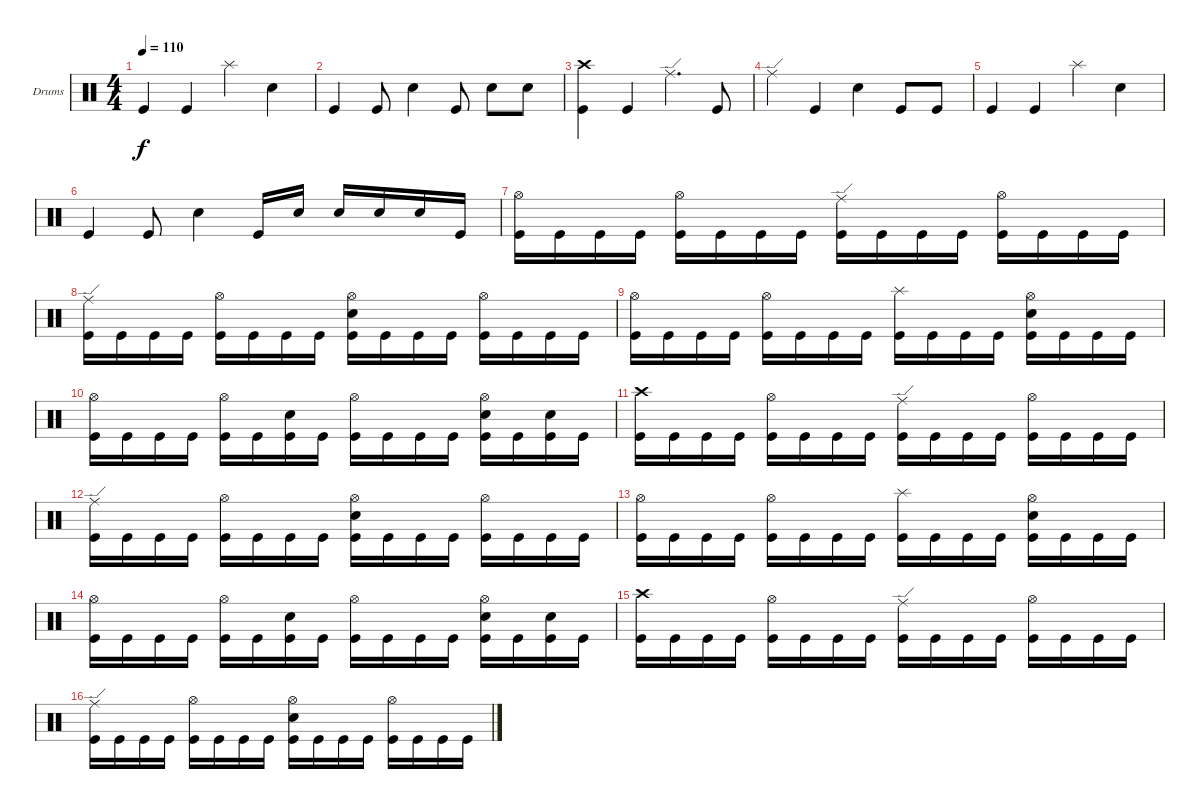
\bracketExtendMode groupsimilarinstruments
\firstSystemTrackNameOrientation horizontal
\otherSystemsTrackNameOrientation horizontal
\track ("Drumkit" "Drums") {instrument percussion}
\staff {score}
\articulation defaults
\ts (4 4)
\tempo 110
\clef neutral
\ks c "Kick (hit)".4{dy f} "Kick (hit)".4 "Splash (hit)".4 "Snare (hit) 2".4
|
"Kick (hit)".4 "Kick (hit)".8 "Snare (hit) 2".4 "Kick (hit)".8 "Snare (hit) 2".8 "Snare (hit) 2".8 |
("Crash high (hit)" "Kick (hit)").4 "Kick (hit)".4 "Ride (edge)".4{d} "Kick (hit)".8 |
"Ride (edge)".4 "Kick (hit)".4 "Snare (hit) 2".4 "Kick (hit)".8 "Kick (hit)".8 |
"Kick (hit)".4 "Kick (hit)".4 "Splash (hit)".4 "Snare (hit) 2".4 |
"Kick (hit)".4 "Kick (hit)".8 "Snare (hit) 2".4 "Kick (hit)".16 "Snare (hit) 2".16 "Snare (hit) 2".16 "Snare (hit) 2".16 "Snare (hit) 2".16 "Kick (hit)".16 |
("Kick (hit)" "Hi-Hat (open)").16 "Kick (hit)".16 "Kick (hit)".16 "Kick (hit)".16 ("Kick (hit)" "Hi-Hat (open)").16 "Kick (hit)".16 "Kick (hit)".16 "Kick (hit)".16 ("Ride (edge)" "Kick (hit)").16 "Kick (hit)".16 "Kick (hit)".16 "Kick (hit)".16 ("Kick (hit)" "Hi-Hat (open)").16 "Kick (hit)".16 "Kick (hit)".16 "Kick (hit)".16 |
("Ride (edge)" "Kick (hit)").16 "Kick (hit)".16 "Kick (hit)".16 "Kick (hit)".16 ("Kick (hit)" "Hi-Hat (open)").16 "Kick (hit)".16 "Kick (hit)".16 "Kick (hit)".16 ("Snare (hit) 2" "Kick (hit)" "Hi-Hat (open)").16 "Kick (hit)".16 "Kick (hit)".16 "Kick (hit)".16 ("Kick (hit)" "Hi-Hat (open)").16 "Kick (hit)".16 "Kick (hit)".16 "Kick (hit)".16 |
("Kick (hit)" "Hi-Hat (open)").16 "Kick (hit)".16 "Kick (hit)".16 "Kick (hit)".16 ("Kick (hit)" "Hi-Hat (open)").16 "Kick (hit)".16 "Kick (hit)".16 "Kick (hit)".16 ("Splash (hit)" "Kick (hit)").16 "Kick (hit)".16 "Kick (hit)".16 "Kick (hit)".16 ("Snare (hit) 2" "Kick (hit)" "Hi-Hat (open)").16 "Kick (hit)".16 "Kick (hit)".16 "Kick (hit)".16 |
("Kick (hit)" "Hi-Hat (open)").16 "Kick (hit)".16 "Kick (hit)".16 "Kick (hit)".16 ("Kick (hit)" "Hi-Hat (open)").16 "Kick (hit)".16 ("Snare (hit) 2" "Kick (hit)").16 "Kick (hit)".16 ("Kick (hit)" "Hi-Hat (open)").16 "Kick (hit)".16 "Kick (hit)".16 "Kick (hit)".16 ("Snare (hit) 2" "Kick (hit)" "Hi-Hat (open)").16 "Kick (hit)".16 ("Snare (hit) 2" "Kick (hit)").16 "Kick (hit)".16 |
("Crash high (hit)" "Kick (hit)").16 "Kick (hit)".16 "Kick (hit)".16 "Kick (hit)".16 ("Kick (hit)" "Hi-Hat (open)").16 "Kick (hit)".16 "Kick (hit)".16 "Kick (hit)".16 ("Ride (edge)" "Kick (hit)").16 "Kick (hit)".16 "Kick (hit)".16 "Kick (hit)".16 ("Kick (hit)" "Hi-Hat (open)").16 "Kick (hit)".16 "Kick (hit)".16 "Kick (hit)".16 |
("Ride (edge)" "Kick (hit)").16 "Kick (hit)".16 "Kick (hit)".16 "Kick (hit)".16 ("Kick (hit)" "Hi-Hat (open)").16 "Kick (hit)".16 "Kick (hit)".16 "Kick (hit)".16 ("Snare (hit) 2" "Kick (hit)" "Hi-Hat (open)").16 "Kick (hit)".16 "Kick (hit)".16 "Kick (hit)".16 ("Kick (hit)" "Hi-Hat (open)").16 "Kick (hit)".16 "Kick (hit)".16 "Kick (hit)".16 |
("Kick (hit)" "Hi-Hat (open)").16 "Kick (hit)".16 "Kick (hit)".16 "Kick (hit)".16 ("Kick (hit)" "Hi-Hat (open)").16 "Kick (hit)".16 "Kick (hit)".16 "Kick (hit)".16 ("Splash (hit)" "Kick (hit)").16 "Kick (hit)".16 "Kick (hit)".16 "Kick (hit)".16 ("Snare (hit) 2" "Kick (hit)" "Hi-Hat (open)").16 "Kick (hit)".16 "Kick (hit)".16 "Kick (hit)".16 |
("Kick (hit)" "Hi-Hat (open)").16 "Kick (hit)".16 "Kick (hit)".16 "Kick (hit)".16 ("Kick (hit)" "Hi-Hat (open)").16 "Kick (hit)".16 ("Snare (hit) 2" "Kick (hit)").16 "Kick (hit)".16 ("Kick (hit)" "Hi-Hat (open)").16 "Kick (hit)".16 "Kick (hit)".16 "Kick (hit)".16 ("Snare (hit) 2" "Kick (hit)" "Hi-Hat (open)").16 "Kick (hit)".16 ("Snare (hit) 2" "Kick (hit)").16 "Kick (hit)".16 |
("Crash high (hit)" "Kick (hit)").16 "Kick (hit)".16 "Kick (hit)".16 "Kick (hit)".16 ("Kick (hit)" "Hi-Hat (open)").16 "Kick (hit)".16 "Kick (hit)".16 "Kick (hit)".16 ("Ride (edge)" "Kick (hit)").16 "Kick (hit)".16 "Kick (hit)".16 "Kick (hit)".16 ("Kick (hit)" "Hi-Hat (open)").16 "Kick (hit)".16 "Kick (hit)".16 "Kick (hit)".16 |
("Ride (edge)" "Kick (hit)").16 "Kick (hit)".16 "Kick (hit)".16 "Kick (hit)".16 ("Kick (hit)" "Hi-Hat (open)").16 "Kick (hit)".16 "Kick (hit)".16 "Kick (hit)".16 ("Snare (hit) 2" "Kick (hit)" "Hi-Hat (open)").16 "Kick (hit)".16 "Kick (hit)".16 "Kick (hit)".16 ("Kick (hit)" "Hi-Hat (open)").16 "Kick (hit)".16 "Kick (hit)".16 "Kick (hit)".16
